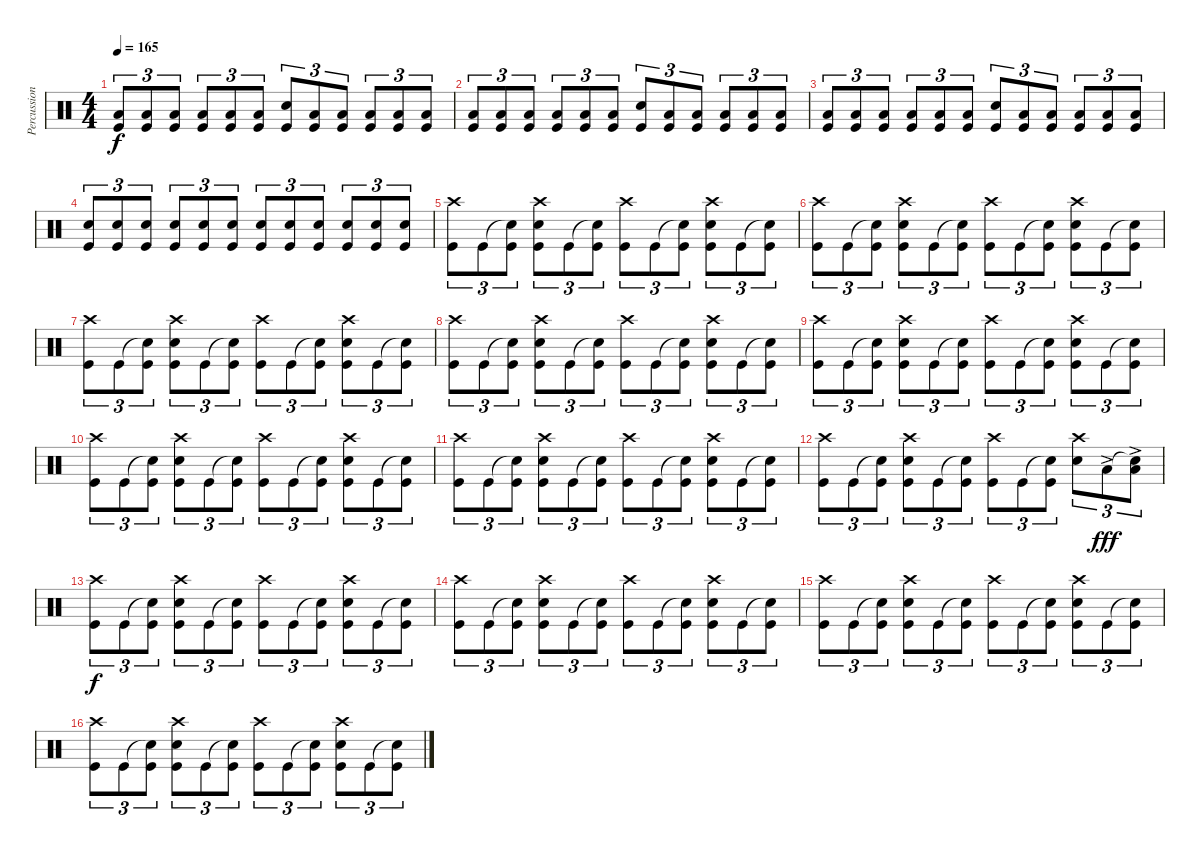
\track ("Percussion" "Percussion") {instrument percussion}
\staff {score}
\articulation defaults
\ts (4 4)
\tempo 165
\clef neutral
\ks c
("Low Floor Tom (hit)" "Kick (hit)").8{tu (3 2) dy f} ("Low Floor Tom (hit)" "Kick (hit)").8{tu (3 2)} ("Low Floor Tom (hit)" "Kick (hit)").8{tu (3 2)} ("Low Floor Tom (hit)" "Kick (hit)").8{tu (3 2)} ("Low Floor Tom (hit)" "Kick (hit)").8{tu (3 2)} ("Low Floor Tom (hit)" "Kick (hit)").8{tu (3 2)} ("Snare (hit) 2" "Kick (hit)").8{tu (3 2)} ("Low Floor Tom (hit)" "Kick (hit)").8{tu (3 2)} ("Low Floor Tom (hit)" "Kick (hit)").8{tu (3 2)} ("Low Floor Tom (hit)" "Kick (hit)").8{tu (3 2)} ("Low Floor Tom (hit)" "Kick (hit)").8{tu (3 2)} ("Low Tom (hit)" "Kick (hit)").8{tu (3 2)} |
("Low Floor Tom (hit)" "Kick (hit)").8{tu (3 2)} ("Low Floor Tom (hit)" "Kick (hit)").8{tu (3 2)} ("Low Floor Tom (hit)" "Kick (hit)").8{tu (3 2)} ("Low Floor Tom (hit)" "Kick (hit)").8{tu (3 2)} ("Low Floor Tom (hit)" "Kick (hit)").8{tu (3 2)} ("Low Floor Tom (hit)" "Kick (hit)").8{tu (3 2)} ("Snare (hit) 2" "Kick (hit)").8{tu (3 2)} ("Low Floor Tom (hit)" "Kick (hit)").8{tu (3 2)} ("Low Floor Tom (hit)" "Kick (hit)").8{tu (3 2)} ("Low Floor Tom (hit)" "Kick (hit)").8{tu (3 2)} ("Low Floor Tom (hit)" "Kick (hit)").8{tu (3 2)} ("Low Tom (hit)" "Kick (hit)").8{tu (3 2)} |
("Low Floor Tom (hit)" "Kick (hit)").8{tu (3 2)} ("Low Floor Tom (hit)" "Kick (hit)").8{tu (3 2)} ("Low Floor Tom (hit)" "Kick (hit)").8{tu (3 2)} ("Low Floor Tom (hit)" "Kick (hit)").8{tu (3 2)} ("Low Floor Tom (hit)" "Kick (hit)").8{tu (3 2)} ("Low Floor Tom (hit)" "Kick (hit)").8{tu (3 2)} ("Snare (hit) 2" "Kick (hit)").8{tu (3 2)} ("Low Floor Tom (hit)" "Kick (hit)").8{tu (3 2)} ("Low Floor Tom (hit)" "Kick (hit)").8{tu (3 2)} ("Low Floor Tom (hit)" "Kick (hit)").8{tu (3 2)} ("Low Floor Tom (hit)" "Kick (hit)").8{tu (3 2)} ("Low Tom (hit)" "Kick (hit)").8{tu (3 2)} |
("Snare (hit) 2" "Kick (hit)").8{tu (3 2)} ("Snare (hit) 2" "Kick (hit)").8{tu (3 2)} ("Snare (hit) 2" "Kick (hit)").8{tu (3 2)} ("Snare (hit) 2" "Kick (hit)").8{tu (3 2)} ("Snare (hit) 2" "Kick (hit)").8{tu (3 2)} ("Snare (hit) 2" "Kick (hit)").8{tu (3 2)} ("Snare (hit) 2" "Kick (hit)").8{tu (3 2)} ("Snare (hit) 2" "Kick (hit)").8{tu (3 2)} ("Snare (hit) 2" "Kick (hit)").8{tu (3 2)} ("Snare (hit) 2" "Kick (hit)").8{tu (3 2)} ("Snare (hit) 2" "Kick (hit)").8{tu (3 2)} ("Snare (hit) 2" "Kick (hit)").8{tu (3 2)} |
("Crash high (hit)" "Kick (hit)").8{tu (3 2)} "Kick (hit)".8{tu (3 2)} ("Snare (hit)"{t} "Kick (hit)").8{tu (3 2)} ("Crash high (hit)" "Snare (hit) 2" "Kick (hit)").8{tu (3 2)} "Kick (hit)".8{tu (3 2)} ("Snare (hit)"{t} "Kick (hit)").8{tu (3 2)} ("Crash high (hit)" "Kick (hit)").8{tu (3 2)} "Kick (hit)".8{tu (3 2)} ("Snare (hit)"{t} "Kick (hit)").8{tu (3 2)} ("Crash high (hit)" "Snare (hit) 2" "Kick (hit)").8{tu (3 2)} "Kick (hit)".8{tu (3 2)} ("Snare (hit)"{t} "Kick (hit)").8{tu (3 2)} |
("Crash high (hit)" "Kick (hit)").8{tu (3 2)} "Kick (hit)".8{tu (3 2)} ("Snare (hit)"{t} "Kick (hit)").8{tu (3 2)} ("Crash high (hit)" "Snare (hit) 2" "Kick (hit)").8{tu (3 2)} "Kick (hit)".8{tu (3 2)} ("Snare (hit)"{t} "Kick (hit)").8{tu (3 2)} ("Crash high (hit)" "Kick (hit)").8{tu (3 2)} "Kick (hit)".8{tu (3 2)} ("Snare (hit)"{t} "Kick (hit)").8{tu (3 2)} ("Crash high (hit)" "Snare (hit) 2" "Kick (hit)").8{tu (3 2)} "Kick (hit)".8{tu (3 2)} ("Snare (hit)"{t} "Kick (hit)").8{tu (3 2)} |
("Crash high (hit)" "Kick (hit)").8{tu (3 2)} "Kick (hit)".8{tu (3 2)} ("Snare (hit)"{t} "Kick (hit)").8{tu (3 2)} ("Crash high (hit)" "Snare (hit) 2" "Kick (hit)").8{tu (3 2)} "Kick (hit)".8{tu (3 2)} ("Snare (hit)"{t} "Kick (hit)").8{tu (3 2)} ("Crash high (hit)" "Kick (hit)").8{tu (3 2)} "Kick (hit)".8{tu (3 2)} ("Snare (hit)"{t} "Kick (hit)").8{tu (3 2)} ("Crash high (hit)" "Snare (hit) 2" "Kick (hit)").8{tu (3 2)} "Kick (hit)".8{tu (3 2)} ("Snare (hit)"{t} "Kick (hit)").8{tu (3 2)} |
("Crash high (hit)" "Kick (hit)").8{tu (3 2)} "Kick (hit)".8{tu (3 2)} ("Snare (hit)"{t} "Kick (hit)").8{tu (3 2)} ("Crash high (hit)" "Snare (hit) 2" "Kick (hit)").8{tu (3 2)} "Kick (hit)".8{tu (3 2)} ("Snare (hit)"{t} "Kick (hit)").8{tu (3 2)} ("Crash high (hit)" "Kick (hit)").8{tu (3 2)} "Kick (hit)".8{tu (3 2)} ("Snare (hit)"{t} "Kick (hit)").8{tu (3 2)} ("Crash high (hit)" "Snare (hit) 2" "Kick (hit)").8{tu (3 2)} "Kick (hit)".8{tu (3 2)} ("Snare (hit)"{t} "Kick (hit)").8{tu (3 2)} |
("Crash high (hit)" "Kick (hit)").8{tu (3 2)} "Kick (hit)".8{tu (3 2)} ("Snare (hit)"{t} "Kick (hit)").8{tu (3 2)} ("Crash high (hit)" "Snare (hit) 2" "Kick (hit)").8{tu (3 2)} "Kick (hit)".8{tu (3 2)} ("Snare (hit)"{t} "Kick (hit)").8{tu (3 2)} ("Crash high (hit)" "Kick (hit)").8{tu (3 2)} "Kick (hit)".8{tu (3 2)} ("Snare (hit)"{t} "Kick (hit)").8{tu (3 2)} ("Crash high (hit)" "Snare (hit) 2" "Kick (hit)").8{tu (3 2)} "Kick (hit)".8{tu (3 2)} ("Snare (hit)"{t} "Kick (hit)").8{tu (3 2)} |
("Crash high (hit)" "Kick (hit)").8{tu (3 2)} "Kick (hit)".8{tu (3 2)} ("Snare (hit)"{t} "Kick (hit)").8{tu (3 2)} ("Crash high (hit)" "Snare (hit) 2" "Kick (hit)").8{tu (3 2)} "Kick (hit)".8{tu (3 2)} ("Snare (hit)"{t} "Kick (hit)").8{tu (3 2)} ("Crash high (hit)" "Kick (hit)").8{tu (3 2)} "Kick (hit)".8{tu (3 2)} ("Snare (hit)"{t} "Kick (hit)").8{tu (3 2)} ("Crash high (hit)" "Snare (hit) 2" "Kick (hit)").8{tu (3 2)} "Kick (hit)".8{tu (3 2)} ("Snare (hit)"{t} "Kick (hit)").8{tu (3 2)} |
("Crash high (hit)" "Kick (hit)").8{tu (3 2)} "Kick (hit)".8{tu (3 2)} ("Snare (hit)"{t} "Kick (hit)").8{tu (3 2)} ("Crash high (hit)" "Snare (hit) 2" "Kick (hit)").8{tu (3 2)} "Kick (hit)".8{tu (3 2)} ("Snare (hit)"{t} "Kick (hit)").8{tu (3 2)} ("Crash high (hit)" "Kick (hit)").8{tu (3 2)} "Kick (hit)".8{tu (3 2)} ("Snare (hit)"{t} "Kick (hit)").8{tu (3 2)} ("Crash high (hit)" "Snare (hit) 2" "Kick (hit)").8{tu (3 2)} "Kick (hit)".8{tu (3 2)} ("Snare (hit)"{t} "Kick (hit)").8{tu (3 2)} |
("Crash high (hit)" "Kick (hit)").8{tu (3 2)} "Kick (hit)".8{tu (3 2)} ("Snare (hit)"{t} "Kick (hit)").8{tu (3 2)} ("Crash high (hit)" "Snare (hit) 2" "Kick (hit)").8{tu (3 2)} "Kick (hit)".8{tu (3 2)} ("Snare (hit)"{t} "Kick (hit)").8{tu (3 2)} ("Crash high (hit)" "Kick (hit)").8{tu (3 2)} "Kick (hit)".8{tu (3 2)} ("Snare (hit)"{t} "Kick (hit)").8{tu (3 2)} ("Crash high (hit)" "Snare (hit) 2").8{tu (3 2)} "Low Tom (hit)"{ac}.8{tu (3 2) dy fff} ("Snare (hit)"{t} "Low Floor Tom (hit)"{ac}).8{tu (3 2)} |
("Crash high (hit)" "Kick (hit)").8{tu (3 2) dy f} "Kick (hit)".8{tu (3 2)} ("Snare (hit)"{t} "Kick (hit)").8{tu (3 2)} ("Crash high (hit)" "Snare (hit) 2" "Kick (hit)").8{tu (3 2)} "Kick (hit)".8{tu (3 2)} ("Snare (hit)"{t} "Kick (hit)").8{tu (3 2)} ("Crash high (hit)" "Kick (hit)").8{tu (3 2)} "Kick (hit)".8{tu (3 2)} ("Snare (hit)"{t} "Kick (hit)").8{tu (3 2)} ("Crash high (hit)" "Snare (hit) 2" "Kick (hit)").8{tu (3 2)} "Kick (hit)".8{tu (3 2)} ("Snare (hit)"{t} "Kick (hit)").8{tu (3 2)} |
("Crash high (hit)" "Kick (hit)").8{tu (3 2)} "Kick (hit)".8{tu (3 2)} ("Snare (hit)"{t} "Kick (hit)").8{tu (3 2)} ("Crash high (hit)" "Snare (hit) 2" "Kick (hit)").8{tu (3 2)} "Kick (hit)".8{tu (3 2)} ("Snare (hit)"{t} "Kick (hit)").8{tu (3 2)} ("Crash high (hit)" "Kick (hit)").8{tu (3 2)} "Kick (hit)".8{tu (3 2)} ("Snare (hit)"{t} "Kick (hit)").8{tu (3 2)} ("Crash high (hit)" "Snare (hit) 2" "Kick (hit)").8{tu (3 2)} "Kick (hit)".8{tu (3 2)} ("Snare (hit)"{t} "Kick (hit)").8{tu (3 2)} |
("Crash high (hit)" "Kick (hit)").8{tu (3 2)} "Kick (hit)".8{tu (3 2)} ("Snare (hit)"{t} "Kick (hit)").8{tu (3 2)} ("Crash high (hit)" "Snare (hit) 2" "Kick (hit)").8{tu (3 2)} "Kick (hit)".8{tu (3 2)} ("Snare (hit)"{t} "Kick (hit)").8{tu (3 2)} ("Crash high (hit)" "Kick (hit)").8{tu (3 2)} "Kick (hit)".8{tu (3 2)} ("Snare (hit)"{t} "Kick (hit)").8{tu (3 2)} ("Crash high (hit)" "Snare (hit) 2" "Kick (hit)").8{tu (3 2)} "Kick (hit)".8{tu (3 2)} ("Snare (hit)"{t} "Kick (hit)").8{tu (3 2)} |
("Crash high (hit)" "Kick (hit)").8{tu (3 2)} "Kick (hit)".8{tu (3 2)} ("Snare (hit)"{t} "Kick (hit)").8{tu (3 2)} ("Crash high (hit)" "Snare (hit) 2" "Kick (hit)").8{tu (3 2)} "Kick (hit)".8{tu (3 2)} ("Snare (hit)"{t} "Kick (hit)").8{tu (3 2)} ("Crash high (hit)" "Kick (hit)").8{tu (3 2)} "Kick (hit)".8{tu (3 2)} ("Snare (hit)"{t} "Kick (hit)").8{tu (3 2)} ("Crash high (hit)" "Snare (hit) 2" "Kick (hit)").8{tu (3 2)} "Kick (hit)".8{tu (3 2)} ("Snare (hit)"{t} "Kick (hit)").8{tu (3 2)}
